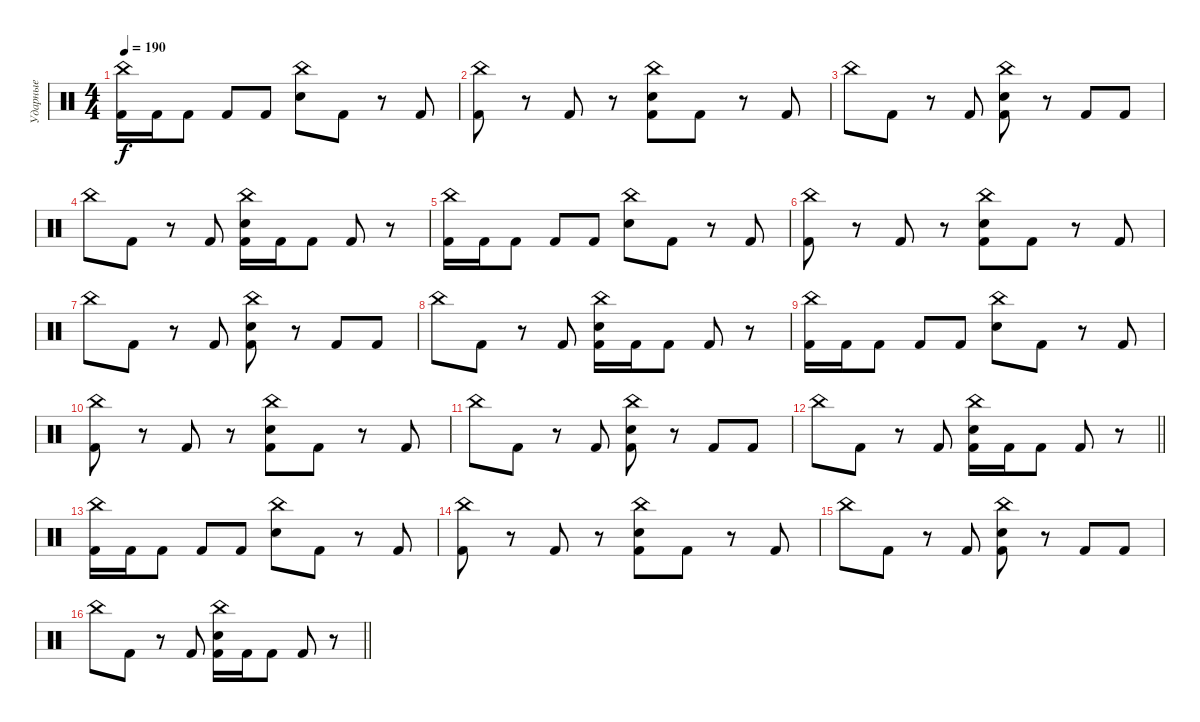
\track ("Ударные" "Ударные") {instrument percussion}
\staff {score}
\articulation defaults
\ts (4 4)
\section ("" "")
\tempo 190
\clef neutral
\ks c
("China (hit)" "Kick (hit) 2").16{dy f} "Kick (hit) 2".16 "Kick (hit) 2".8 "Kick (hit) 2".8 "Kick (hit) 2".8 ("China (hit)" "Snare (hit) 2").8 "Kick (hit) 2".8 r.8 "Kick (hit) 2".8 |
("China (hit)" "Kick (hit) 2").8 r.8 "Kick (hit) 2".8 r.8 ("China (hit)" "Snare (hit) 2" "Kick (hit) 2").8 "Kick (hit) 2".8 r.8 "Kick (hit) 2".8 |
"China (hit)".8 "Kick (hit) 2".8 r.8 "Kick (hit) 2".8 ("China (hit)" "Snare (hit) 2" "Kick (hit) 2").8 r.8 "Kick (hit) 2".8 "Kick (hit) 2".8 |
"China (hit)".8 "Kick (hit) 2".8 r.8 "Kick (hit) 2".8 ("China (hit)" "Snare (hit) 2" "Kick (hit) 2").16 "Kick (hit) 2".16 "Kick (hit) 2".8 "Kick (hit) 2".8 r.8 |
("China (hit)" "Kick (hit) 2").16 "Kick (hit) 2".16 "Kick (hit) 2".8 "Kick (hit) 2".8 "Kick (hit) 2".8 ("China (hit)" "Snare (hit) 2").8 "Kick (hit) 2".8 r.8 "Kick (hit) 2".8 |
("China (hit)" "Kick (hit) 2").8 r.8 "Kick (hit) 2".8 r.8 ("China (hit)" "Snare (hit) 2" "Kick (hit) 2").8 "Kick (hit) 2".8 r.8 "Kick (hit) 2".8 |
"China (hit)".8 "Kick (hit) 2".8 r.8 "Kick (hit) 2".8 ("China (hit)" "Snare (hit) 2" "Kick (hit) 2").8 r.8 "Kick (hit) 2".8 "Kick (hit) 2".8 |
"China (hit)".8 "Kick (hit) 2".8 r.8 "Kick (hit) 2".8 ("China (hit)" "Snare (hit) 2" "Kick (hit) 2").16 "Kick (hit) 2".16 "Kick (hit) 2".8 "Kick (hit) 2".8 r.8 |
("China (hit)" "Kick (hit) 2").16 "Kick (hit) 2".16 "Kick (hit) 2".8 "Kick (hit) 2".8 "Kick (hit) 2".8 ("China (hit)" "Snare (hit) 2").8 "Kick (hit) 2".8 r.8 "Kick (hit) 2".8 |
("China (hit)" "Kick (hit) 2").8 r.8 "Kick (hit) 2".8 r.8 ("China (hit)" "Snare (hit) 2" "Kick (hit) 2").8 "Kick (hit) 2".8 r.8 "Kick (hit) 2".8 |
"China (hit)".8 "Kick (hit) 2".8 r.8 "Kick (hit) 2".8 ("China (hit)" "Snare (hit) 2" "Kick (hit) 2").8 r.8 "Kick (hit) 2".8 "Kick (hit) 2".8 |
\barLineRight lightlight "China (hit)".8 "Kick (hit) 2".8
r.8 "Kick (hit) 2".8 ("China (hit)" "Snare (hit) 2" "Kick (hit) 2").16 "Kick (hit) 2".16 "Kick (hit) 2".8 "Kick (hit) 2".8 r.8 |
("China (hit)" "Kick (hit) 2").16 "Kick (hit) 2".16 "Kick (hit) 2".8 "Kick (hit) 2".8 "Kick (hit) 2".8 ("China (hit)" "Snare (hit) 2").8 "Kick (hit) 2".8 r.8 "Kick (hit) 2".8 |
("China (hit)" "Kick (hit) 2").8 r.8 "Kick (hit) 2".8 r.8 ("China (hit)" "Snare (hit) 2" "Kick (hit) 2").8 "Kick (hit) 2".8 r.8 "Kick (hit) 2".8 |
"China (hit)".8 "Kick (hit) 2".8 r.8 "Kick (hit) 2".8 ("China (hit)" "Snare (hit) 2" "Kick (hit) 2").8 r.8 "Kick (hit) 2".8 "Kick (hit) 2".8 |
\barLineRight lightlight "China (hit)".8 "Kick (hit) 2".8
r.8 "Kick (hit) 2".8 ("China (hit)" "Snare (hit) 2" "Kick (hit) 2").16 "Kick (hit) 2".16 "Kick (hit) 2".8 "Kick (hit) 2".8 r.8
